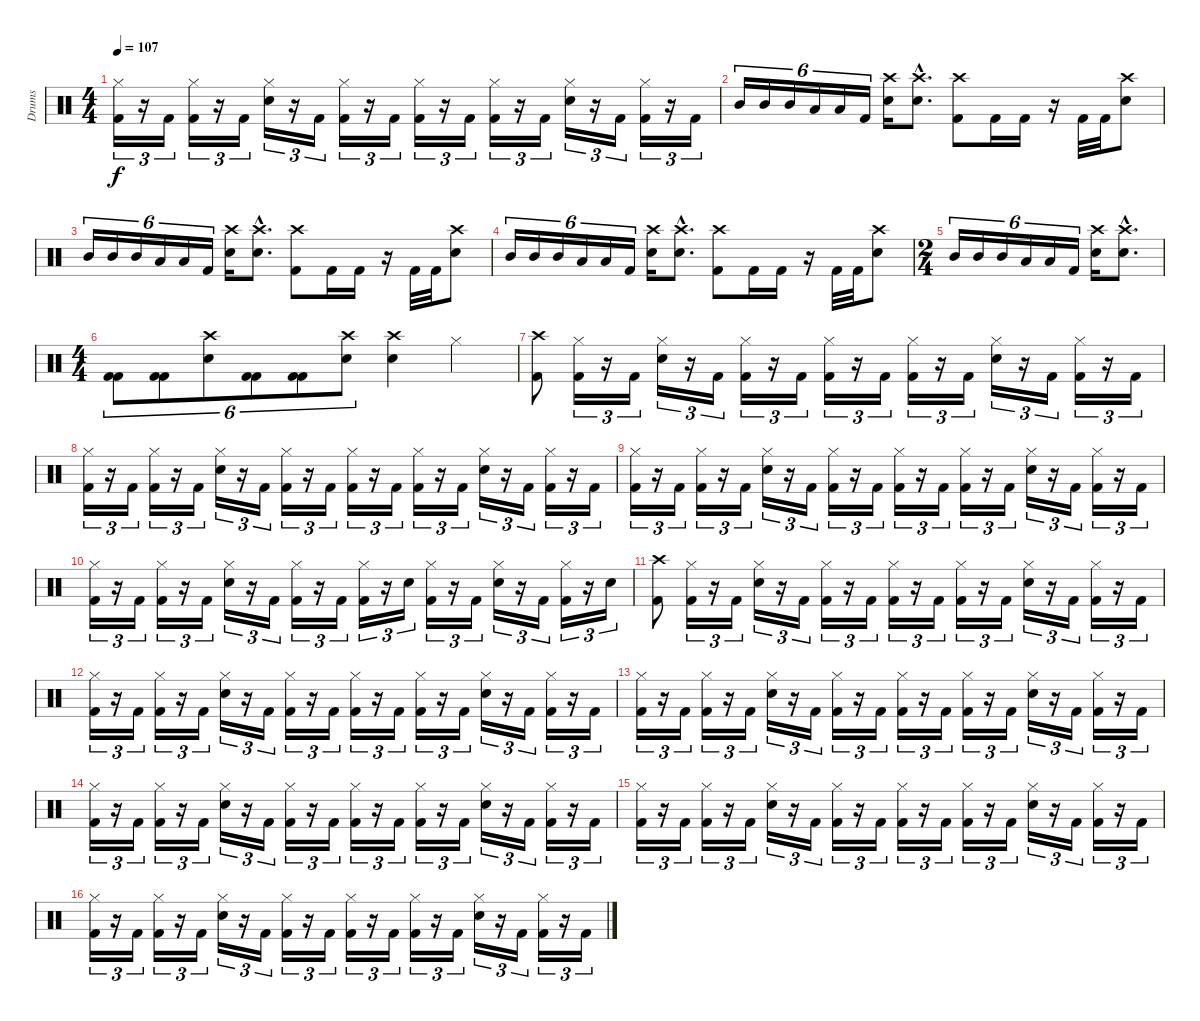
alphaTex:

\track ("Drums" "Drums") {instrument percussion}
\staff {score}
\articulation defaults
\ts (4 4)
\tempo 107
\clef neutral
\ks c
("Hi-Hat (closed)" "Kick (hit) 2").16{tu (3 2) dy f} r.16{tu (3 2)} "Kick (hit) 2".16{tu (3 2)} ("Hi-Hat (closed)" "Kick (hit) 2").16{tu (3 2)} r.16{tu (3 2)} "Kick (hit) 2".16{tu (3 2)} ("Hi-Hat (closed)" "Electric Snare (hit)").16{tu (3 2)} r.16{tu (3 2)} "Kick (hit) 2".16{tu (3 2)} ("Hi-Hat (closed)" "Kick (hit) 2").16{tu (3 2)} r.16{tu (3 2)} "Kick (hit) 2".16{tu (3 2)} ("Hi-Hat (closed)" "Kick (hit) 2").16{tu (3 2)} r.16{tu (3 2)} "Kick (hit) 2".16{tu (3 2)} ("Hi-Hat (closed)" "Kick (hit) 2").16{tu (3 2)} r.16{tu (3 2)} "Kick (hit) 2".16{tu (3 2)} ("Hi-Hat (closed)" "Electric Snare (hit)").16{tu (3 2)} r.16{tu (3 2)} "Kick (hit) 2".16{tu (3 2)} ("Hi-Hat (closed)" "Kick (hit) 2").16{tu (3 2)} r.16{tu (3 2)} "Kick (hit) 2".16{tu (3 2)} |
"Mid Tom (hit)".16{tu (6 4)} "Mid Tom (hit)".16{tu (6 4)} "Mid Tom (hit)".16{tu (6 4)} "Low Tom (hit)".16{tu (6 4)} "Low Tom (hit)".16{tu (6 4)} "Kick (hit) 2".16{tu (6 4)} ("Crash high (hit)" "Electric Snare (hit)").16 ("Electric Snare (hit)"{hac} "Crash high (hit)"{hac}).8{d} ("Crash high (hit)" "Kick (hit) 2").8 "Kick (hit) 2".16 "Kick (hit) 2".16 r.16 "Kick (hit) 2".32 "Kick (hit) 2".32 ("Crash high (hit)" "Electric Snare (hit)").8 |
"Mid Tom (hit)".16{tu (6 4)} "Mid Tom (hit)".16{tu (6 4)} "Mid Tom (hit)".16{tu (6 4)} "Low Tom (hit)".16{tu (6 4)} "Low Tom (hit)".16{tu (6 4)} "Kick (hit) 2".16{tu (6 4)} ("Crash high (hit)" "Electric Snare (hit)").16 ("Electric Snare (hit)"{hac} "Crash high (hit)"{hac}).8{d} ("Crash high (hit)" "Kick (hit) 2").8 "Kick (hit) 2".16 "Kick (hit) 2".16 r.16 "Kick (hit) 2".32 "Kick (hit) 2".32 ("Crash high (hit)" "Electric Snare (hit)").8 |
"Mid Tom (hit)".16{tu (6 4)} "Mid Tom (hit)".16{tu (6 4)} "Mid Tom (hit)".16{tu (6 4)} "Low Tom (hit)".16{tu (6 4)} "Low Tom (hit)".16{tu (6 4)} "Kick (hit) 2".16{tu (6 4)} ("Crash high (hit)" "Electric Snare (hit)").16 ("Electric Snare (hit)"{hac} "Crash high (hit)"{hac}).8{d} ("Crash high (hit)" "Kick (hit) 2").8 "Kick (hit) 2".16 "Kick (hit) 2".16 r.16 "Kick (hit) 2".32 "Kick (hit) 2".32 ("Crash high (hit)" "Electric Snare (hit)").8 |
\ts (2 4)
"Mid Tom (hit)".16{tu (6 4)} "Mid Tom (hit)".16{tu (6 4)} "Mid Tom (hit)".16{tu (6 4)} "Low Tom (hit)".16{tu (6 4)} "Low Tom (hit)".16{tu (6 4)} "Kick (hit) 2".16{tu (6 4)} ("Crash high (hit)" "Electric Snare (hit)").16 ("Crash high (hit)"{hac} "Electric Snare (hit)"{hac}).8{d} |
\ts (4 4)
("Kick (hit) 2" "Kick (hit) 2").8{tu (6 4)} ("Kick (hit) 2" "Kick (hit) 2").8{tu (6 4)} ("Crash high (hit)" "Electric Snare (hit)").8{tu (6 4)} ("Kick (hit) 2" "Kick (hit) 2").8{tu (6 4)} ("Kick (hit) 2" "Kick (hit) 2").8{tu (6 4)} ("Crash high (hit)" "Electric Snare (hit)").8{tu (6 4)} ("Crash high (hit)" "Electric Snare (hit)").4 "Hi-Hat (closed)".4 |
("Crash high (hit)" "Kick (hit) 2").8{balance 8} ("Hi-Hat (closed)" "Kick (hit) 2").16{tu (3 2)} r.16{tu (3 2)} "Kick (hit) 2".16{tu (3 2)} ("Hi-Hat (closed)" "Electric Snare (hit)").16{tu (3 2)} r.16{tu (3 2)} "Kick (hit) 2".16{tu (3 2)} ("Hi-Hat (closed)" "Kick (hit) 2").16{tu (3 2)} r.16{tu (3 2)} "Kick (hit) 2".16{tu (3 2)} ("Hi-Hat (closed)" "Kick (hit) 2").16{tu (3 2)} r.16{tu (3 2)} "Kick (hit) 2".16{tu (3 2)} ("Hi-Hat (closed)" "Kick (hit) 2").16{tu (3 2)} r.16{tu (3 2)} "Kick (hit) 2".16{tu (3 2)} ("Hi-Hat (closed)" "Electric Snare (hit)").16{tu (3 2)} r.16{tu (3 2)} "Kick (hit) 2".16{tu (3 2)} ("Hi-Hat (closed)" "Kick (hit) 2").16{tu (3 2)} r.16{tu (3 2)} "Kick (hit) 2".16{tu (3 2)} |
("Hi-Hat (closed)" "Kick (hit) 2").16{tu (3 2)} r.16{tu (3 2)} "Kick (hit) 2".16{tu (3 2)} ("Hi-Hat (closed)" "Kick (hit) 2").16{tu (3 2)} r.16{tu (3 2)} "Kick (hit) 2".16{tu (3 2)} ("Hi-Hat (closed)" "Electric Snare (hit)").16{tu (3 2)} r.16{tu (3 2)} "Kick (hit) 2".16{tu (3 2)} ("Hi-Hat (closed)" "Kick (hit) 2").16{tu (3 2)} r.16{tu (3 2)} "Kick (hit) 2".16{tu (3 2)} ("Hi-Hat (closed)" "Kick (hit) 2").16{tu (3 2)} r.16{tu (3 2)} "Kick (hit) 2".16{tu (3 2)} ("Hi-Hat (closed)" "Kick (hit) 2").16{tu (3 2)} r.16{tu (3 2)} "Kick (hit) 2".16{tu (3 2)} ("Hi-Hat (closed)" "Electric Snare (hit)").16{tu (3 2)} r.16{tu (3 2)} "Kick (hit) 2".16{tu (3 2)} ("Hi-Hat (closed)" "Kick (hit) 2").16{tu (3 2)} r.16{tu (3 2)} "Kick (hit) 2".16{tu (3 2)} |
("Hi-Hat (closed)" "Kick (hit) 2").16{tu (3 2)} r.16{tu (3 2)} "Kick (hit) 2".16{tu (3 2)} ("Hi-Hat (closed)" "Kick (hit) 2").16{tu (3 2)} r.16{tu (3 2)} "Kick (hit) 2".16{tu (3 2)} ("Hi-Hat (closed)" "Electric Snare (hit)").16{tu (3 2)} r.16{tu (3 2)} "Kick (hit) 2".16{tu (3 2)} ("Hi-Hat (closed)" "Kick (hit) 2").16{tu (3 2)} r.16{tu (3 2)} "Kick (hit) 2".16{tu (3 2)} ("Hi-Hat (closed)" "Kick (hit) 2").16{tu (3 2)} r.16{tu (3 2)} "Kick (hit) 2".16{tu (3 2)} ("Hi-Hat (closed)" "Kick (hit) 2").16{tu (3 2)} r.16{tu (3 2)} "Kick (hit) 2".16{tu (3 2)} ("Hi-Hat (closed)" "Electric Snare (hit)").16{tu (3 2)} r.16{tu (3 2)} "Kick (hit) 2".16{tu (3 2)} ("Hi-Hat (closed)" "Kick (hit) 2").16{tu (3 2)} r.16{tu (3 2)} "Kick (hit) 2".16{tu (3 2)} |
("Hi-Hat (closed)" "Kick (hit) 2").16{tu (3 2)} r.16{tu (3 2)} "Kick (hit) 2".16{tu (3 2)} ("Hi-Hat (closed)" "Kick (hit) 2").16{tu (3 2)} r.16{tu (3 2)} "Kick (hit) 2".16{tu (3 2)} ("Hi-Hat (closed)" "Electric Snare (hit)").16{tu (3 2)} r.16{tu (3 2)} "Kick (hit) 2".16{tu (3 2)} ("Hi-Hat (closed)" "Kick (hit) 2").16{tu (3 2)} r.16{tu (3 2)} "Kick (hit) 2".16{tu (3 2)} ("Hi-Hat (closed)" "Kick (hit) 2").16{tu (3 2)} r.16{tu (3 2)} "Electric Snare (hit)".16{tu (3 2)} ("Hi-Hat (closed)" "Kick (hit) 2").16{tu (3 2)} r.16{tu (3 2)} "Kick (hit) 2".16{tu (3 2)} ("Hi-Hat (closed)" "Electric Snare (hit)").16{tu (3 2)} r.16{tu (3 2)} "Kick (hit) 2".16{tu (3 2)} ("Hi-Hat (closed)" "Kick (hit) 2").16{tu (3 2)} r.16{tu (3 2)} "Electric Snare (hit)".16{tu (3 2)} |
("Crash high (hit)" "Kick (hit) 2").8{balance 8} ("Hi-Hat (closed)" "Kick (hit) 2").16{tu (3 2)} r.16{tu (3 2)} "Kick (hit) 2".16{tu (3 2)} ("Hi-Hat (closed)" "Electric Snare (hit)").16{tu (3 2)} r.16{tu (3 2)} "Kick (hit) 2".16{tu (3 2)} ("Hi-Hat (closed)" "Kick (hit) 2").16{tu (3 2)} r.16{tu (3 2)} "Kick (hit) 2".16{tu (3 2)} ("Hi-Hat (closed)" "Kick (hit) 2").16{tu (3 2)} r.16{tu (3 2)} "Kick (hit) 2".16{tu (3 2)} ("Hi-Hat (closed)" "Kick (hit) 2").16{tu (3 2)} r.16{tu (3 2)} "Kick (hit) 2".16{tu (3 2)} ("Hi-Hat (closed)" "Electric Snare (hit)").16{tu (3 2)} r.16{tu (3 2)} "Kick (hit) 2".16{tu (3 2)} ("Hi-Hat (closed)" "Kick (hit) 2").16{tu (3 2)} r.16{tu (3 2)} "Kick (hit) 2".16{tu (3 2)} |
("Hi-Hat (closed)" "Kick (hit) 2").16{tu (3 2)} r.16{tu (3 2)} "Kick (hit) 2".16{tu (3 2)} ("Hi-Hat (closed)" "Kick (hit) 2").16{tu (3 2)} r.16{tu (3 2)} "Kick (hit) 2".16{tu (3 2)} ("Hi-Hat (closed)" "Electric Snare (hit)").16{tu (3 2)} r.16{tu (3 2)} "Kick (hit) 2".16{tu (3 2)} ("Hi-Hat (closed)" "Kick (hit) 2").16{tu (3 2)} r.16{tu (3 2)} "Kick (hit) 2".16{tu (3 2)} ("Hi-Hat (closed)" "Kick (hit) 2").16{tu (3 2)} r.16{tu (3 2)} "Kick (hit) 2".16{tu (3 2)} ("Hi-Hat (closed)" "Kick (hit) 2").16{tu (3 2)} r.16{tu (3 2)} "Kick (hit) 2".16{tu (3 2)} ("Hi-Hat (closed)" "Electric Snare (hit)").16{tu (3 2)} r.16{tu (3 2)} "Kick (hit) 2".16{tu (3 2)} ("Hi-Hat (closed)" "Kick (hit) 2").16{tu (3 2)} r.16{tu (3 2)} "Kick (hit) 2".16{tu (3 2)} |
("Hi-Hat (closed)" "Kick (hit) 2").16{tu (3 2)} r.16{tu (3 2)} "Kick (hit) 2".16{tu (3 2)} ("Hi-Hat (closed)" "Kick (hit) 2").16{tu (3 2)} r.16{tu (3 2)} "Kick (hit) 2".16{tu (3 2)} ("Hi-Hat (closed)" "Electric Snare (hit)").16{tu (3 2)} r.16{tu (3 2)} "Kick (hit) 2".16{tu (3 2)} ("Hi-Hat (closed)" "Kick (hit) 2").16{tu (3 2)} r.16{tu (3 2)} "Kick (hit) 2".16{tu (3 2)} ("Hi-Hat (closed)" "Kick (hit) 2").16{tu (3 2)} r.16{tu (3 2)} "Kick (hit) 2".16{tu (3 2)} ("Hi-Hat (closed)" "Kick (hit) 2").16{tu (3 2)} r.16{tu (3 2)} "Kick (hit) 2".16{tu (3 2)} ("Hi-Hat (closed)" "Electric Snare (hit)").16{tu (3 2)} r.16{tu (3 2)} "Kick (hit) 2".16{tu (3 2)} ("Hi-Hat (closed)" "Kick (hit) 2").16{tu (3 2)} r.16{tu (3 2)} "Kick (hit) 2".16{tu (3 2)} |
("Hi-Hat (closed)" "Kick (hit) 2").16{tu (3 2)} r.16{tu (3 2)} "Kick (hit) 2".16{tu (3 2)} ("Hi-Hat (closed)" "Kick (hit) 2").16{tu (3 2)} r.16{tu (3 2)} "Kick (hit) 2".16{tu (3 2)} ("Hi-Hat (closed)" "Electric Snare (hit)").16{tu (3 2)} r.16{tu (3 2)} "Kick (hit) 2".16{tu (3 2)} ("Hi-Hat (closed)" "Kick (hit) 2").16{tu (3 2)} r.16{tu (3 2)} "Kick (hit) 2".16{tu (3 2)} ("Hi-Hat (closed)" "Kick (hit) 2").16{tu (3 2)} r.16{tu (3 2)} "Kick (hit) 2".16{tu (3 2)} ("Hi-Hat (closed)" "Kick (hit) 2").16{tu (3 2)} r.16{tu (3 2)} "Kick (hit) 2".16{tu (3 2)} ("Hi-Hat (closed)" "Electric Snare (hit)").16{tu (3 2)} r.16{tu (3 2)} "Kick (hit) 2".16{tu (3 2)} ("Hi-Hat (closed)" "Kick (hit) 2").16{tu (3 2)} r.16{tu (3 2)} "Kick (hit) 2".16{tu (3 2)} |
("Hi-Hat (closed)" "Kick (hit) 2").16{tu (3 2)} r.16{tu (3 2)} "Kick (hit) 2".16{tu (3 2)} ("Hi-Hat (closed)" "Kick (hit) 2").16{tu (3 2)} r.16{tu (3 2)} "Kick (hit) 2".16{tu (3 2)} ("Hi-Hat (closed)" "Electric Snare (hit)").16{tu (3 2)} r.16{tu (3 2)} "Kick (hit) 2".16{tu (3 2)} ("Hi-Hat (closed)" "Kick (hit) 2").16{tu (3 2)} r.16{tu (3 2)} "Kick (hit) 2".16{tu (3 2)} ("Hi-Hat (closed)" "Kick (hit) 2").16{tu (3 2)} r.16{tu (3 2)} "Kick (hit) 2".16{tu (3 2)} ("Hi-Hat (closed)" "Kick (hit) 2").16{tu (3 2)} r.16{tu (3 2)} "Kick (hit) 2".16{tu (3 2)} ("Hi-Hat (closed)" "Electric Snare (hit)").16{tu (3 2)} r.16{tu (3 2)} "Kick (hit) 2".16{tu (3 2)} ("Hi-Hat (closed)" "Kick (hit) 2").16{tu (3 2)} r.16{tu (3 2)} "Kick (hit) 2".16{tu (3 2)} |
("Hi-Hat (closed)" "Kick (hit) 2").16{tu (3 2)} r.16{tu (3 2)} "Kick (hit) 2".16{tu (3 2)} ("Hi-Hat (closed)" "Kick (hit) 2").16{tu (3 2)} r.16{tu (3 2)} "Kick (hit) 2".16{tu (3 2)} ("Hi-Hat (closed)" "Electric Snare (hit)").16{tu (3 2)} r.16{tu (3 2)} "Kick (hit) 2".16{tu (3 2)} ("Hi-Hat (closed)" "Kick (hit) 2").16{tu (3 2)} r.16{tu (3 2)} "Kick (hit) 2".16{tu (3 2)} ("Hi-Hat (closed)" "Kick (hit) 2").16{tu (3 2)} r.16{tu (3 2)} "Kick (hit) 2".16{tu (3 2)} ("Hi-Hat (closed)" "Kick (hit) 2").16{tu (3 2)} r.16{tu (3 2)} "Kick (hit) 2".16{tu (3 2)} ("Hi-Hat (closed)" "Electric Snare (hit)").16{tu (3 2)} r.16{tu (3 2)} "Kick (hit) 2".16{tu (3 2)} ("Hi-Hat (closed)" "Kick (hit) 2").16{tu (3 2)} r.16{tu (3 2)} "Kick (hit) 2".16{tu (3 2)}
